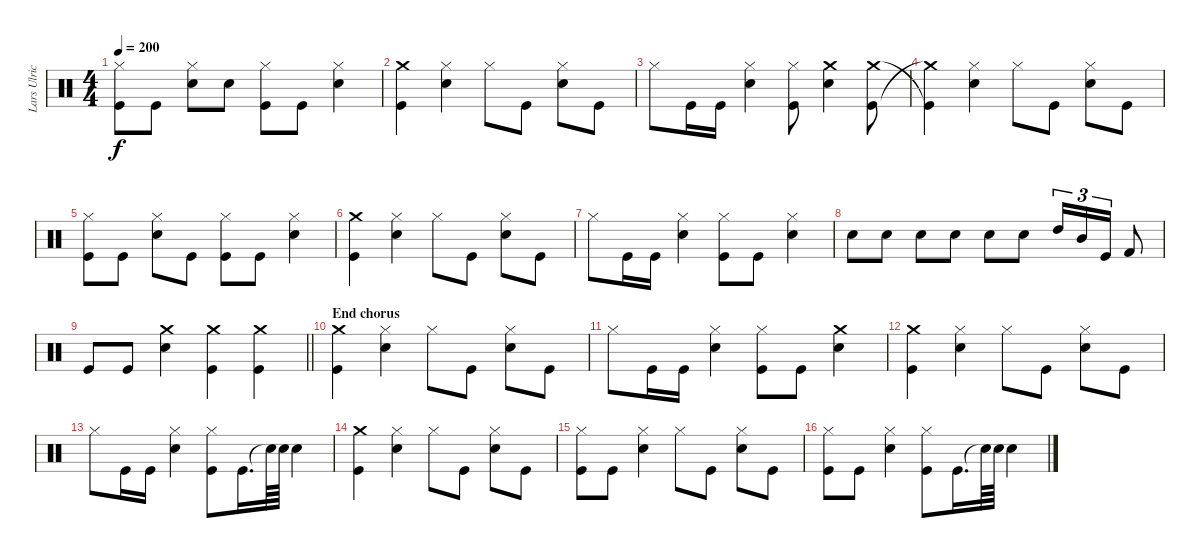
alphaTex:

\track ("Lars Ulrich (Drums)" "Lars Ulric") {instrument percussion}
\staff {score}
\articulation defaults
\ts (4 4)
\tempo 200
\clef neutral
\ks c
("Kick (hit)" "Hi-Hat (closed)").8{dy f} "Kick (hit)".8 ("Snare (hit) 2" "Hi-Hat (closed)").8 "Snare (hit) 2".8 ("Kick (hit)" "Hi-Hat (closed)").8 "Kick (hit)".8 ("Snare (hit) 2" "Hi-Hat (closed)").4 |
("Kick (hit)" "Crash medium (hit)").4 ("Hi-Hat (closed)" "Snare (hit) 2").4 "Hi-Hat (closed)".8 "Kick (hit)".8 ("Snare (hit) 2" "Hi-Hat (closed)").8 "Kick (hit)".8 |
"Hi-Hat (closed)".8 "Kick (hit)".16 "Kick (hit)".16 ("Snare (hit) 2" "Hi-Hat (closed)").4 ("Kick (hit)" "Hi-Hat (closed)").8 ("Snare (hit) 2" "Crash medium (hit)").4 ("Crash medium (hit)" "Kick (hit)").8 |
("Kick (hit)"{t} "Crash medium (hit)"{t}).4 ("Hi-Hat (closed)" "Snare (hit) 2").4 "Hi-Hat (closed)".8 "Kick (hit)".8 ("Snare (hit) 2" "Hi-Hat (closed)").8 "Kick (hit)".8 |
("Hi-Hat (closed)" "Kick (hit)").8 "Kick (hit)".8 ("Snare (hit) 2" "Hi-Hat (closed)").8 "Kick (hit)".8 ("Hi-Hat (closed)" "Kick (hit)").8 "Kick (hit)".8 ("Snare (hit) 2" "Hi-Hat (closed)").4 |
("Kick (hit)" "Crash medium (hit)").4 ("Hi-Hat (closed)" "Snare (hit) 2").4 "Hi-Hat (closed)".8 "Kick (hit)".8 ("Snare (hit) 2" "Hi-Hat (closed)").8 "Kick (hit)".8 |
"Hi-Hat (closed)".8 "Kick (hit)".16 "Kick (hit)".16 ("Snare (hit) 2" "Hi-Hat (closed)").4 ("Kick (hit)" "Hi-Hat (closed)").8 "Kick (hit)".8 ("Snare (hit) 2" "Hi-Hat (closed)").4 |
"Snare (hit) 2".8 "Snare (hit) 2".8 "Snare (hit) 2".8 "Snare (hit) 2".8 "Snare (hit) 2".8 "Snare (hit) 2".8 "High Tom (hit)".16{tu (3 2)} "Mid Tom (hit)".16{tu (3 2)} "Kick (hit)".16{tu (3 2)} "Kick (hit) 2".8 |
\barLineRight lightlight "Kick (hit)".8 "Kick (hit)".8
("Crash medium (hit)" "Snare (hit) 2").4 ("Crash medium (hit)" "Kick (hit)").4 ("Crash medium (hit)" "Kick (hit)").4 |
\section ("" "End chorus")
("Kick (hit)" "Crash medium (hit)").4 ("Hi-Hat (closed)" "Snare (hit) 2").4 "Hi-Hat (closed)".8 "Kick (hit)".8 ("Snare (hit) 2" "Hi-Hat (closed)").8 "Kick (hit)".8 |
"Hi-Hat (closed)".8 "Kick (hit)".16 "Kick (hit)".16 ("Snare (hit) 2" "Hi-Hat (closed)").4 ("Kick (hit)" "Hi-Hat (closed)").8 "Kick (hit)".8 ("Crash medium (hit)" "Snare (hit) 2").4 |
("Kick (hit)" "Crash medium (hit)").4 ("Hi-Hat (closed)" "Snare (hit) 2").4 "Hi-Hat (closed)".8 "Kick (hit)".8 ("Snare (hit) 2" "Hi-Hat (closed)").8 "Kick (hit)".8 |
"Hi-Hat (closed)".8 "Kick (hit)".16 "Kick (hit)".16 ("Snare (hit) 2" "Hi-Hat (closed)").4 ("Kick (hit)" "Hi-Hat (closed)").8 "Kick (hit)".16{d} "Snare (hit)"{t}.64 "Snare (hit) 2".64 "Snare (hit) 2".4 |
("Kick (hit)" "Crash medium (hit)").4 ("Snare (hit) 2" "Hi-Hat (closed)").4 "Hi-Hat (closed)".8 "Kick (hit)".8 ("Snare (hit) 2" "Hi-Hat (closed)").8 "Kick (hit)".8 |
("Kick (hit)" "Hi-Hat (closed)").8 "Kick (hit)".8 ("Snare (hit) 2" "Hi-Hat (closed)").4 "Hi-Hat (closed)".8 "Kick (hit)".8 ("Snare (hit) 2" "Hi-Hat (closed)").8 "Kick (hit)".8 |
("Hi-Hat (closed)" "Kick (hit)").8 "Kick (hit)".8 ("Snare (hit) 2" "Hi-Hat (closed)").4 ("Hi-Hat (closed)" "Kick (hit)").8 "Kick (hit)".16{d} "Snare (hit)"{t}.64 "Snare (hit) 2".64 "Snare (hit) 2".4
